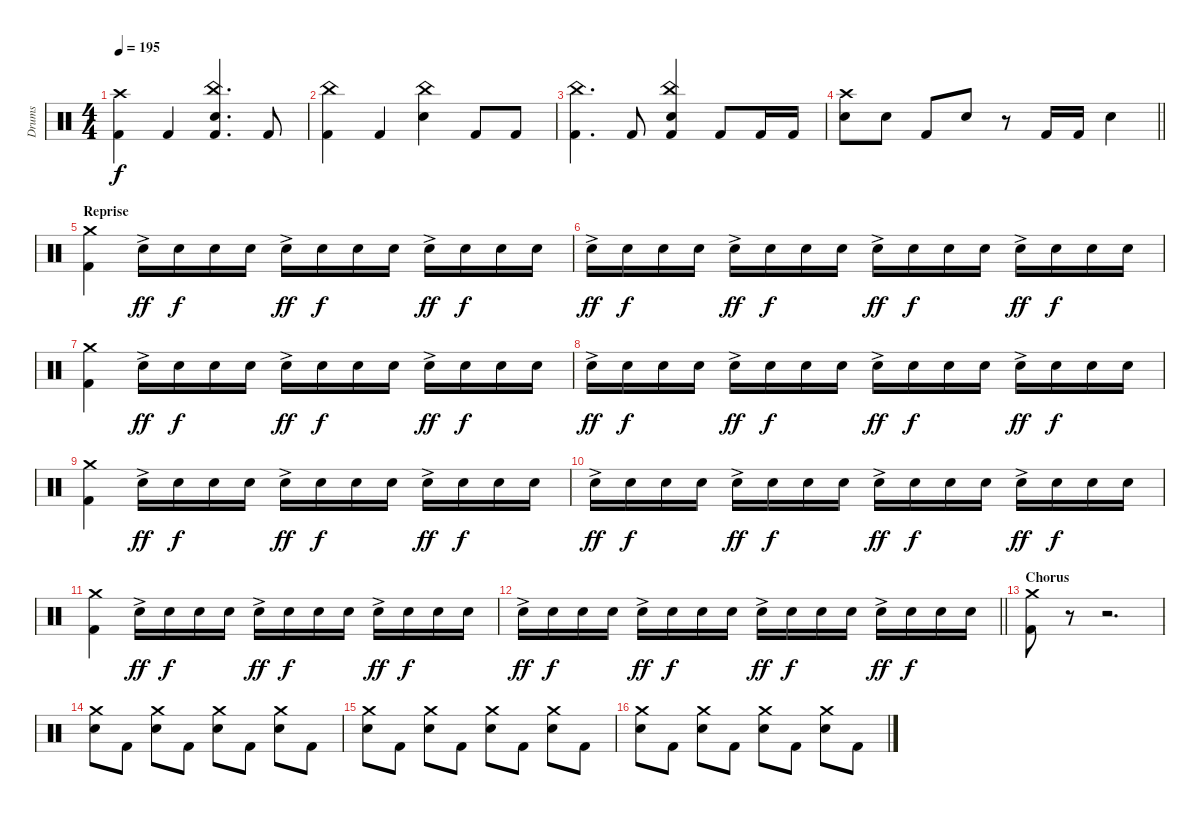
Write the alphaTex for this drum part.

\track ("Drums" "Drums") {instrument percussion}
\staff {score}
\articulation defaults
\ts (4 4)
\tempo 195
\clef neutral
\ks c
("Crash high (hit)" "Kick (hit) 2").4{dy f} "Kick (hit) 2".4 ("China (hit)" "Snare (hit) 2" "Kick (hit) 2").4{d} "Kick (hit) 2".8 |
("China (hit)" "Kick (hit) 2").4 "Kick (hit) 2".4 ("China (hit)" "Snare (hit) 2").4 "Kick (hit) 2".8 "Kick (hit) 2".8 |
("China (hit)" "Kick (hit) 2").4{d} "Kick (hit) 2".8 ("China (hit)" "Snare (hit) 2" "Kick (hit) 2").4 "Kick (hit) 2".8 "Kick (hit) 2".16 "Kick (hit) 2".16 |
\barLineRight lightlight
("Crash high (hit)" "Snare (hit) 2").8 "Snare (hit) 2".8 "Kick (hit) 2".8 "Snare (hit) 2".8 r.8 "Kick (hit) 2".16 "Kick (hit) 2".16 "Snare (hit) 2".4 |
\section ("" "Reprise")
("Crash medium (hit)" "Kick (hit) 2").4 "Snare (hit) 2"{ac}.16{dy ff} "Snare (hit) 2".16{dy f} "Snare (hit) 2".16 "Snare (hit) 2".16 "Snare (hit) 2"{ac}.16{dy ff} "Snare (hit) 2".16{dy f} "Snare (hit) 2".16 "Snare (hit) 2".16 "Snare (hit) 2"{ac}.16{dy ff} "Snare (hit) 2".16{dy f} "Snare (hit) 2".16 "Snare (hit) 2".16 |
"Snare (hit) 2"{ac}.16{dy ff} "Snare (hit) 2".16{dy f} "Snare (hit) 2".16 "Snare (hit) 2".16 "Snare (hit) 2"{ac}.16{dy ff} "Snare (hit) 2".16{dy f} "Snare (hit) 2".16 "Snare (hit) 2".16 "Snare (hit) 2"{ac}.16{dy ff} "Snare (hit) 2".16{dy f} "Snare (hit) 2".16 "Snare (hit) 2".16 "Snare (hit) 2"{ac}.16{dy ff} "Snare (hit) 2".16{dy f} "Snare (hit) 2".16 "Snare (hit) 2".16 |
("Crash medium (hit)" "Kick (hit) 2").4 "Snare (hit) 2"{ac}.16{dy ff} "Snare (hit) 2".16{dy f} "Snare (hit) 2".16 "Snare (hit) 2".16 "Snare (hit) 2"{ac}.16{dy ff} "Snare (hit) 2".16{dy f} "Snare (hit) 2".16 "Snare (hit) 2".16 "Snare (hit) 2"{ac}.16{dy ff} "Snare (hit) 2".16{dy f} "Snare (hit) 2".16 "Snare (hit) 2".16 |
"Snare (hit) 2"{ac}.16{dy ff} "Snare (hit) 2".16{dy f} "Snare (hit) 2".16 "Snare (hit) 2".16 "Snare (hit) 2"{ac}.16{dy ff} "Snare (hit) 2".16{dy f} "Snare (hit) 2".16 "Snare (hit) 2".16 "Snare (hit) 2"{ac}.16{dy ff} "Snare (hit) 2".16{dy f} "Snare (hit) 2".16 "Snare (hit) 2".16 "Snare (hit) 2"{ac}.16{dy ff} "Snare (hit) 2".16{dy f} "Snare (hit) 2".16 "Snare (hit) 2".16 |
("Crash medium (hit)" "Kick (hit) 2").4 "Snare (hit) 2"{ac}.16{dy ff} "Snare (hit) 2".16{dy f} "Snare (hit) 2".16 "Snare (hit) 2".16 "Snare (hit) 2"{ac}.16{dy ff} "Snare (hit) 2".16{dy f} "Snare (hit) 2".16 "Snare (hit) 2".16 "Snare (hit) 2"{ac}.16{dy ff} "Snare (hit) 2".16{dy f} "Snare (hit) 2".16 "Snare (hit) 2".16 |
"Snare (hit) 2"{ac}.16{dy ff} "Snare (hit) 2".16{dy f} "Snare (hit) 2".16 "Snare (hit) 2".16 "Snare (hit) 2"{ac}.16{dy ff} "Snare (hit) 2".16{dy f} "Snare (hit) 2".16 "Snare (hit) 2".16 "Snare (hit) 2"{ac}.16{dy ff} "Snare (hit) 2".16{dy f} "Snare (hit) 2".16 "Snare (hit) 2".16 "Snare (hit) 2"{ac}.16{dy ff} "Snare (hit) 2".16{dy f} "Snare (hit) 2".16 "Snare (hit) 2".16 |
("Crash medium (hit)" "Kick (hit) 2").4 "Snare (hit) 2"{ac}.16{dy ff} "Snare (hit) 2".16{dy f} "Snare (hit) 2".16 "Snare (hit) 2".16 "Snare (hit) 2"{ac}.16{dy ff} "Snare (hit) 2".16{dy f} "Snare (hit) 2".16 "Snare (hit) 2".16 "Snare (hit) 2"{ac}.16{dy ff} "Snare (hit) 2".16{dy f} "Snare (hit) 2".16 "Snare (hit) 2".16 |
\barLineRight lightlight "Snare (hit) 2"{ac}.16{dy ff} "Snare (hit) 2".16{dy f} "Snare (hit) 2".16 "Snare (hit) 2".16 "Snare (hit) 2"{ac}.16{dy ff} "Snare (hit) 2".16{dy f} "Snare (hit) 2".16 "Snare (hit) 2".16 "Snare (hit) 2"{ac}.16{dy ff} "Snare (hit) 2".16{dy f} "Snare (hit) 2".16 "Snare (hit) 2".16 "Snare (hit) 2"{ac}.16{dy ff} "Snare (hit) 2".16{dy f} "Snare (hit) 2".16 "Snare (hit) 2".16
|
\section ("" "Chorus")
("Crash medium (hit)" "Kick (hit) 2").8 r.8{volume 0} r.2{d} |
("Crash medium (hit)" "Snare (hit) 2").8{volume 14} "Kick (hit) 2".8 ("Crash medium (hit)" "Snare (hit) 2").8 "Kick (hit) 2".8 ("Crash medium (hit)" "Snare (hit) 2").8 "Kick (hit) 2".8 ("Crash medium (hit)" "Snare (hit) 2").8 "Kick (hit) 2".8 |
("Crash medium (hit)" "Snare (hit) 2").8 "Kick (hit) 2".8 ("Crash medium (hit)" "Snare (hit) 2").8 "Kick (hit) 2".8 ("Crash medium (hit)" "Snare (hit) 2").8 "Kick (hit) 2".8 ("Crash medium (hit)" "Snare (hit) 2").8 "Kick (hit) 2".8 |
("Crash medium (hit)" "Snare (hit) 2").8 "Kick (hit) 2".8 ("Crash medium (hit)" "Snare (hit) 2").8 "Kick (hit) 2".8 ("Crash medium (hit)" "Snare (hit) 2").8 "Kick (hit) 2".8 ("Crash medium (hit)" "Snare (hit) 2").8 "Kick (hit) 2".8
